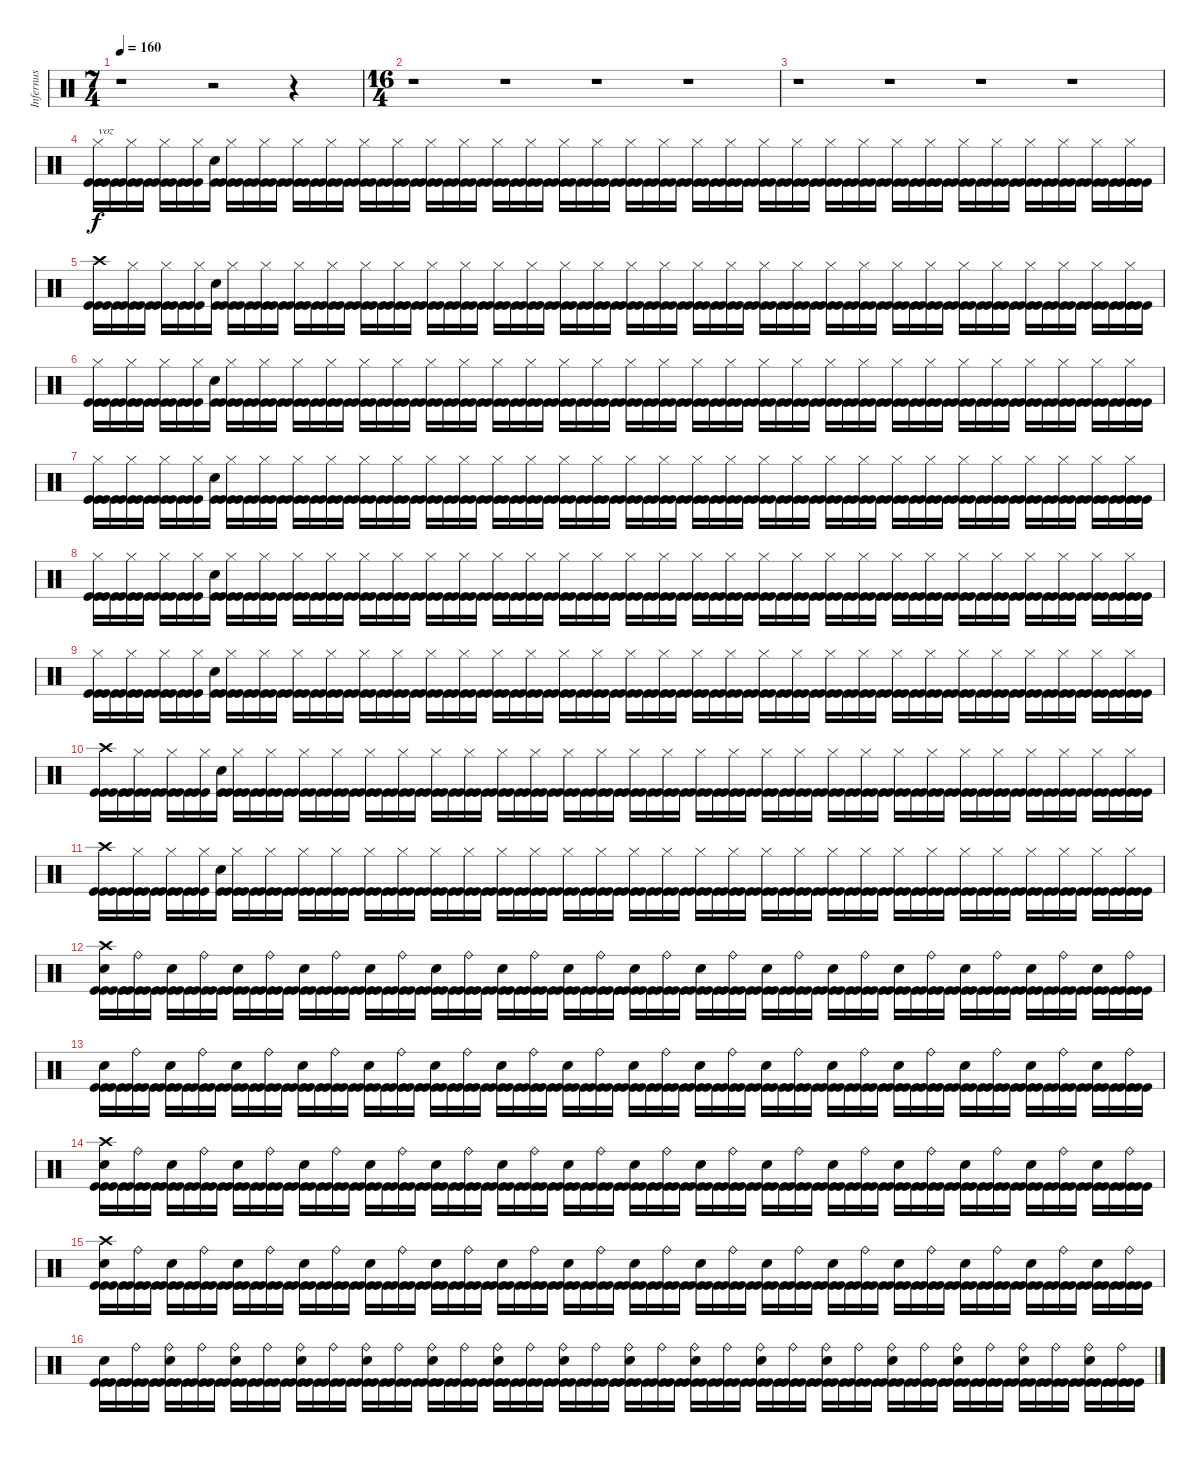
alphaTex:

\track ("Infernus" "Infernus") {instrument percussion}
\staff {score}
\articulation defaults
\ts (7 4)
\tempo 160
\clef neutral
\ks c
r.1{dy f} r.2 r.4 |
\ts (16 4)
r.1 r.1 r.1 r.1 |
r.1 r.1 r.1 r.1 |
("Hi-Hat (closed)" "Kick (hit)" "Kick (hit)").16{txt "voz"} ("Kick (hit)" "Kick (hit)").16 ("Hi-Hat (closed)" "Kick (hit)" "Kick (hit)").16 ("Kick (hit)" "Kick (hit)").16 ("Hi-Hat (closed)" "Kick (hit)" "Kick (hit)").16 ("Kick (hit)" "Kick (hit)").16 ("Hi-Hat (closed)" "Kick (hit)" "Kick (hit)").16 ("Snare (hit)" "Kick (hit)").16 ("Hi-Hat (closed)" "Kick (hit)" "Kick (hit)").16 ("Kick (hit)" "Kick (hit)").16 ("Hi-Hat (closed)" "Kick (hit)" "Kick (hit)").16 ("Kick (hit)" "Kick (hit)").16 ("Hi-Hat (closed)" "Kick (hit)" "Kick (hit)").16 ("Kick (hit)" "Kick (hit)").16 ("Hi-Hat (closed)" "Kick (hit)" "Kick (hit)").16 ("Kick (hit)" "Kick (hit)").16 ("Hi-Hat (closed)" "Kick (hit)" "Kick (hit)").16 ("Kick (hit)" "Kick (hit)").16 ("Hi-Hat (closed)" "Kick (hit)" "Kick (hit)").16 ("Kick (hit)" "Kick (hit)").16 ("Hi-Hat (closed)" "Kick (hit)" "Kick (hit)").16 ("Kick (hit)" "Kick (hit)").16 ("Hi-Hat (closed)" "Kick (hit)" "Kick (hit)").16 ("Kick (hit)" "Kick (hit)").16 ("Hi-Hat (closed)" "Kick (hit)" "Kick (hit)").16 ("Kick (hit)" "Kick (hit)").16 ("Hi-Hat (closed)" "Kick (hit)" "Kick (hit)").16 ("Kick (hit)" "Kick (hit)").16 ("Hi-Hat (closed)" "Kick (hit)" "Kick (hit)").16 ("Kick (hit)" "Kick (hit)").16 ("Hi-Hat (closed)" "Kick (hit)" "Kick (hit)").16 ("Kick (hit)" "Kick (hit)").16 ("Hi-Hat (closed)" "Kick (hit)" "Kick (hit)").16 ("Kick (hit)" "Kick (hit)").16 ("Hi-Hat (closed)" "Kick (hit)" "Kick (hit)").16 ("Kick (hit)" "Kick (hit)").16 ("Hi-Hat (closed)" "Kick (hit)" "Kick (hit)").16 ("Kick (hit)" "Kick (hit)").16 ("Hi-Hat (closed)" "Kick (hit)" "Kick (hit)").16 ("Kick (hit)" "Kick (hit)").16 ("Hi-Hat (closed)" "Kick (hit)" "Kick (hit)").16 ("Kick (hit)" "Kick (hit)").16 ("Hi-Hat (closed)" "Kick (hit)" "Kick (hit)").16 ("Kick (hit)" "Kick (hit)").16 ("Hi-Hat (closed)" "Kick (hit)" "Kick (hit)").16 ("Kick (hit)" "Kick (hit)").16 ("Hi-Hat (closed)" "Kick (hit)" "Kick (hit)").16 ("Kick (hit)" "Kick (hit)").16 ("Hi-Hat (closed)" "Kick (hit)" "Kick (hit)").16 ("Kick (hit)" "Kick (hit)").16 ("Hi-Hat (closed)" "Kick (hit)" "Kick (hit)").16 ("Kick (hit)" "Kick (hit)").16 ("Hi-Hat (closed)" "Kick (hit)" "Kick (hit)").16 ("Kick (hit)" "Kick (hit)").16 ("Hi-Hat (closed)" "Kick (hit)" "Kick (hit)").16 ("Kick (hit)" "Kick (hit)").16 ("Hi-Hat (closed)" "Kick (hit)" "Kick (hit)").16 ("Kick (hit)" "Kick (hit)").16 ("Hi-Hat (closed)" "Kick (hit)" "Kick (hit)").16 ("Kick (hit)" "Kick (hit)").16 ("Hi-Hat (closed)" "Kick (hit)" "Kick (hit)").16 ("Kick (hit)" "Kick (hit)").16 ("Hi-Hat (closed)" "Kick (hit)" "Kick (hit)").16 ("Kick (hit)" "Kick (hit)").16 |
("Crash high (hit)" "Kick (hit)" "Kick (hit)").16 ("Kick (hit)" "Kick (hit)").16 ("Hi-Hat (closed)" "Kick (hit)" "Kick (hit)").16 ("Kick (hit)" "Kick (hit)").16 ("Hi-Hat (closed)" "Kick (hit)" "Kick (hit)").16 ("Kick (hit)" "Kick (hit)").16 ("Hi-Hat (closed)" "Kick (hit)" "Kick (hit)").16 ("Snare (hit)" "Kick (hit)").16 ("Hi-Hat (closed)" "Kick (hit)" "Kick (hit)").16 ("Kick (hit)" "Kick (hit)").16 ("Hi-Hat (closed)" "Kick (hit)" "Kick (hit)").16 ("Kick (hit)" "Kick (hit)").16 ("Hi-Hat (closed)" "Kick (hit)" "Kick (hit)").16 ("Kick (hit)" "Kick (hit)").16 ("Hi-Hat (closed)" "Kick (hit)" "Kick (hit)").16 ("Kick (hit)" "Kick (hit)").16 ("Hi-Hat (closed)" "Kick (hit)" "Kick (hit)").16 ("Kick (hit)" "Kick (hit)").16 ("Hi-Hat (closed)" "Kick (hit)" "Kick (hit)").16 ("Kick (hit)" "Kick (hit)").16 ("Hi-Hat (closed)" "Kick (hit)" "Kick (hit)").16 ("Kick (hit)" "Kick (hit)").16 ("Hi-Hat (closed)" "Kick (hit)" "Kick (hit)").16 ("Kick (hit)" "Kick (hit)").16 ("Hi-Hat (closed)" "Kick (hit)" "Kick (hit)").16 ("Kick (hit)" "Kick (hit)").16 ("Hi-Hat (closed)" "Kick (hit)" "Kick (hit)").16 ("Kick (hit)" "Kick (hit)").16 ("Hi-Hat (closed)" "Kick (hit)" "Kick (hit)").16 ("Kick (hit)" "Kick (hit)").16 ("Hi-Hat (closed)" "Kick (hit)" "Kick (hit)").16 ("Kick (hit)" "Kick (hit)").16 ("Hi-Hat (closed)" "Kick (hit)" "Kick (hit)").16 ("Kick (hit)" "Kick (hit)").16 ("Hi-Hat (closed)" "Kick (hit)" "Kick (hit)").16 ("Kick (hit)" "Kick (hit)").16 ("Hi-Hat (closed)" "Kick (hit)" "Kick (hit)").16 ("Kick (hit)" "Kick (hit)").16 ("Hi-Hat (closed)" "Kick (hit)" "Kick (hit)").16 ("Kick (hit)" "Kick (hit)").16 ("Hi-Hat (closed)" "Kick (hit)" "Kick (hit)").16 ("Kick (hit)" "Kick (hit)").16 ("Hi-Hat (closed)" "Kick (hit)" "Kick (hit)").16 ("Kick (hit)" "Kick (hit)").16 ("Hi-Hat (closed)" "Kick (hit)" "Kick (hit)").16 ("Kick (hit)" "Kick (hit)").16 ("Hi-Hat (closed)" "Kick (hit)" "Kick (hit)").16 ("Kick (hit)" "Kick (hit)").16 ("Hi-Hat (closed)" "Kick (hit)" "Kick (hit)").16 ("Kick (hit)" "Kick (hit)").16 ("Hi-Hat (closed)" "Kick (hit)" "Kick (hit)").16 ("Kick (hit)" "Kick (hit)").16 ("Hi-Hat (closed)" "Kick (hit)" "Kick (hit)").16 ("Kick (hit)" "Kick (hit)").16 ("Hi-Hat (closed)" "Kick (hit)" "Kick (hit)").16 ("Kick (hit)" "Kick (hit)").16 ("Hi-Hat (closed)" "Kick (hit)" "Kick (hit)").16 ("Kick (hit)" "Kick (hit)").16 ("Hi-Hat (closed)" "Kick (hit)" "Kick (hit)").16 ("Kick (hit)" "Kick (hit)").16 ("Hi-Hat (closed)" "Kick (hit)" "Kick (hit)").16 ("Kick (hit)" "Kick (hit)").16 ("Hi-Hat (closed)" "Kick (hit)" "Kick (hit)").16 ("Kick (hit)" "Kick (hit)").16 |
("Hi-Hat (closed)" "Kick (hit)" "Kick (hit)").16 ("Kick (hit)" "Kick (hit)").16 ("Hi-Hat (closed)" "Kick (hit)" "Kick (hit)").16 ("Kick (hit)" "Kick (hit)").16 ("Hi-Hat (closed)" "Kick (hit)" "Kick (hit)").16 ("Kick (hit)" "Kick (hit)").16 ("Hi-Hat (closed)" "Kick (hit)" "Kick (hit)").16 ("Snare (hit)" "Kick (hit)").16 ("Hi-Hat (closed)" "Kick (hit)" "Kick (hit)").16 ("Kick (hit)" "Kick (hit)").16 ("Hi-Hat (closed)" "Kick (hit)" "Kick (hit)").16 ("Kick (hit)" "Kick (hit)").16 ("Hi-Hat (closed)" "Kick (hit)" "Kick (hit)").16 ("Kick (hit)" "Kick (hit)").16 ("Hi-Hat (closed)" "Kick (hit)" "Kick (hit)").16 ("Kick (hit)" "Kick (hit)").16 ("Hi-Hat (closed)" "Kick (hit)" "Kick (hit)").16 ("Kick (hit)" "Kick (hit)").16 ("Hi-Hat (closed)" "Kick (hit)" "Kick (hit)").16 ("Kick (hit)" "Kick (hit)").16 ("Hi-Hat (closed)" "Kick (hit)" "Kick (hit)").16 ("Kick (hit)" "Kick (hit)").16 ("Hi-Hat (closed)" "Kick (hit)" "Kick (hit)").16 ("Kick (hit)" "Kick (hit)").16 ("Hi-Hat (closed)" "Kick (hit)" "Kick (hit)").16 ("Kick (hit)" "Kick (hit)").16 ("Hi-Hat (closed)" "Kick (hit)" "Kick (hit)").16 ("Kick (hit)" "Kick (hit)").16 ("Hi-Hat (closed)" "Kick (hit)" "Kick (hit)").16 ("Kick (hit)" "Kick (hit)").16 ("Hi-Hat (closed)" "Kick (hit)" "Kick (hit)").16 ("Kick (hit)" "Kick (hit)").16 ("Hi-Hat (closed)" "Kick (hit)" "Kick (hit)").16 ("Kick (hit)" "Kick (hit)").16 ("Hi-Hat (closed)" "Kick (hit)" "Kick (hit)").16 ("Kick (hit)" "Kick (hit)").16 ("Hi-Hat (closed)" "Kick (hit)" "Kick (hit)").16 ("Kick (hit)" "Kick (hit)").16 ("Hi-Hat (closed)" "Kick (hit)" "Kick (hit)").16 ("Kick (hit)" "Kick (hit)").16 ("Hi-Hat (closed)" "Kick (hit)" "Kick (hit)").16 ("Kick (hit)" "Kick (hit)").16 ("Hi-Hat (closed)" "Kick (hit)" "Kick (hit)").16 ("Kick (hit)" "Kick (hit)").16 ("Hi-Hat (closed)" "Kick (hit)" "Kick (hit)").16 ("Kick (hit)" "Kick (hit)").16 ("Hi-Hat (closed)" "Kick (hit)" "Kick (hit)").16 ("Kick (hit)" "Kick (hit)").16 ("Hi-Hat (closed)" "Kick (hit)" "Kick (hit)").16 ("Kick (hit)" "Kick (hit)").16 ("Hi-Hat (closed)" "Kick (hit)" "Kick (hit)").16 ("Kick (hit)" "Kick (hit)").16 ("Hi-Hat (closed)" "Kick (hit)" "Kick (hit)").16 ("Kick (hit)" "Kick (hit)").16 ("Hi-Hat (closed)" "Kick (hit)" "Kick (hit)").16 ("Kick (hit)" "Kick (hit)").16 ("Hi-Hat (closed)" "Kick (hit)" "Kick (hit)").16 ("Kick (hit)" "Kick (hit)").16 ("Hi-Hat (closed)" "Kick (hit)" "Kick (hit)").16 ("Kick (hit)" "Kick (hit)").16 ("Hi-Hat (closed)" "Kick (hit)" "Kick (hit)").16 ("Kick (hit)" "Kick (hit)").16 ("Hi-Hat (closed)" "Kick (hit)" "Kick (hit)").16 ("Kick (hit)" "Kick (hit)").16 |
("Hi-Hat (closed)" "Kick (hit)" "Kick (hit)").16 ("Kick (hit)" "Kick (hit)").16 ("Hi-Hat (closed)" "Kick (hit)" "Kick (hit)").16 ("Kick (hit)" "Kick (hit)").16 ("Hi-Hat (closed)" "Kick (hit)" "Kick (hit)").16 ("Kick (hit)" "Kick (hit)").16 ("Hi-Hat (closed)" "Kick (hit)" "Kick (hit)").16 ("Snare (hit)" "Kick (hit)").16 ("Hi-Hat (closed)" "Kick (hit)" "Kick (hit)").16 ("Kick (hit)" "Kick (hit)").16 ("Hi-Hat (closed)" "Kick (hit)" "Kick (hit)").16 ("Kick (hit)" "Kick (hit)").16 ("Hi-Hat (closed)" "Kick (hit)" "Kick (hit)").16 ("Kick (hit)" "Kick (hit)").16 ("Hi-Hat (closed)" "Kick (hit)" "Kick (hit)").16 ("Kick (hit)" "Kick (hit)").16 ("Hi-Hat (closed)" "Kick (hit)" "Kick (hit)").16 ("Kick (hit)" "Kick (hit)").16 ("Hi-Hat (closed)" "Kick (hit)" "Kick (hit)").16 ("Kick (hit)" "Kick (hit)").16 ("Hi-Hat (closed)" "Kick (hit)" "Kick (hit)").16 ("Kick (hit)" "Kick (hit)").16 ("Hi-Hat (closed)" "Kick (hit)" "Kick (hit)").16 ("Kick (hit)" "Kick (hit)").16 ("Hi-Hat (closed)" "Kick (hit)" "Kick (hit)").16 ("Kick (hit)" "Kick (hit)").16 ("Hi-Hat (closed)" "Kick (hit)" "Kick (hit)").16 ("Kick (hit)" "Kick (hit)").16 ("Hi-Hat (closed)" "Kick (hit)" "Kick (hit)").16 ("Kick (hit)" "Kick (hit)").16 ("Hi-Hat (closed)" "Kick (hit)" "Kick (hit)").16 ("Kick (hit)" "Kick (hit)").16 ("Hi-Hat (closed)" "Kick (hit)" "Kick (hit)").16 ("Kick (hit)" "Kick (hit)").16 ("Hi-Hat (closed)" "Kick (hit)" "Kick (hit)").16 ("Kick (hit)" "Kick (hit)").16 ("Hi-Hat (closed)" "Kick (hit)" "Kick (hit)").16 ("Kick (hit)" "Kick (hit)").16 ("Hi-Hat (closed)" "Kick (hit)" "Kick (hit)").16 ("Kick (hit)" "Kick (hit)").16 ("Hi-Hat (closed)" "Kick (hit)" "Kick (hit)").16 ("Kick (hit)" "Kick (hit)").16 ("Hi-Hat (closed)" "Kick (hit)" "Kick (hit)").16 ("Kick (hit)" "Kick (hit)").16 ("Hi-Hat (closed)" "Kick (hit)" "Kick (hit)").16 ("Kick (hit)" "Kick (hit)").16 ("Hi-Hat (closed)" "Kick (hit)" "Kick (hit)").16 ("Kick (hit)" "Kick (hit)").16 ("Hi-Hat (closed)" "Kick (hit)" "Kick (hit)").16 ("Kick (hit)" "Kick (hit)").16 ("Hi-Hat (closed)" "Kick (hit)" "Kick (hit)").16 ("Kick (hit)" "Kick (hit)").16 ("Hi-Hat (closed)" "Kick (hit)" "Kick (hit)").16 ("Kick (hit)" "Kick (hit)").16 ("Hi-Hat (closed)" "Kick (hit)" "Kick (hit)").16 ("Kick (hit)" "Kick (hit)").16 ("Hi-Hat (closed)" "Kick (hit)" "Kick (hit)").16 ("Kick (hit)" "Kick (hit)").16 ("Hi-Hat (closed)" "Kick (hit)" "Kick (hit)").16 ("Kick (hit)" "Kick (hit)").16 ("Hi-Hat (closed)" "Kick (hit)" "Kick (hit)").16 ("Kick (hit)" "Kick (hit)").16 ("Hi-Hat (closed)" "Kick (hit)" "Kick (hit)").16 ("Kick (hit)" "Kick (hit)").16 |
("Hi-Hat (closed)" "Kick (hit)" "Kick (hit)").16 ("Kick (hit)" "Kick (hit)").16 ("Hi-Hat (closed)" "Kick (hit)" "Kick (hit)").16 ("Kick (hit)" "Kick (hit)").16 ("Hi-Hat (closed)" "Kick (hit)" "Kick (hit)").16 ("Kick (hit)" "Kick (hit)").16 ("Hi-Hat (closed)" "Kick (hit)" "Kick (hit)").16 ("Snare (hit)" "Kick (hit)").16 ("Hi-Hat (closed)" "Kick (hit)" "Kick (hit)").16 ("Kick (hit)" "Kick (hit)").16 ("Hi-Hat (closed)" "Kick (hit)" "Kick (hit)").16 ("Kick (hit)" "Kick (hit)").16 ("Hi-Hat (closed)" "Kick (hit)" "Kick (hit)").16 ("Kick (hit)" "Kick (hit)").16 ("Hi-Hat (closed)" "Kick (hit)" "Kick (hit)").16 ("Kick (hit)" "Kick (hit)").16 ("Hi-Hat (closed)" "Kick (hit)" "Kick (hit)").16 ("Kick (hit)" "Kick (hit)").16 ("Hi-Hat (closed)" "Kick (hit)" "Kick (hit)").16 ("Kick (hit)" "Kick (hit)").16 ("Hi-Hat (closed)" "Kick (hit)" "Kick (hit)").16 ("Kick (hit)" "Kick (hit)").16 ("Hi-Hat (closed)" "Kick (hit)" "Kick (hit)").16 ("Kick (hit)" "Kick (hit)").16 ("Hi-Hat (closed)" "Kick (hit)" "Kick (hit)").16 ("Kick (hit)" "Kick (hit)").16 ("Hi-Hat (closed)" "Kick (hit)" "Kick (hit)").16 ("Kick (hit)" "Kick (hit)").16 ("Hi-Hat (closed)" "Kick (hit)" "Kick (hit)").16 ("Kick (hit)" "Kick (hit)").16 ("Hi-Hat (closed)" "Kick (hit)" "Kick (hit)").16 ("Kick (hit)" "Kick (hit)").16 ("Hi-Hat (closed)" "Kick (hit)" "Kick (hit)").16 ("Kick (hit)" "Kick (hit)").16 ("Hi-Hat (closed)" "Kick (hit)" "Kick (hit)").16 ("Kick (hit)" "Kick (hit)").16 ("Hi-Hat (closed)" "Kick (hit)" "Kick (hit)").16 ("Kick (hit)" "Kick (hit)").16 ("Hi-Hat (closed)" "Kick (hit)" "Kick (hit)").16 ("Kick (hit)" "Kick (hit)").16 ("Hi-Hat (closed)" "Kick (hit)" "Kick (hit)").16 ("Kick (hit)" "Kick (hit)").16 ("Hi-Hat (closed)" "Kick (hit)" "Kick (hit)").16 ("Kick (hit)" "Kick (hit)").16 ("Hi-Hat (closed)" "Kick (hit)" "Kick (hit)").16 ("Kick (hit)" "Kick (hit)").16 ("Hi-Hat (closed)" "Kick (hit)" "Kick (hit)").16 ("Kick (hit)" "Kick (hit)").16 ("Hi-Hat (closed)" "Kick (hit)" "Kick (hit)").16 ("Kick (hit)" "Kick (hit)").16 ("Hi-Hat (closed)" "Kick (hit)" "Kick (hit)").16 ("Kick (hit)" "Kick (hit)").16 ("Hi-Hat (closed)" "Kick (hit)" "Kick (hit)").16 ("Kick (hit)" "Kick (hit)").16 ("Hi-Hat (closed)" "Kick (hit)" "Kick (hit)").16 ("Kick (hit)" "Kick (hit)").16 ("Hi-Hat (closed)" "Kick (hit)" "Kick (hit)").16 ("Kick (hit)" "Kick (hit)").16 ("Hi-Hat (closed)" "Kick (hit)" "Kick (hit)").16 ("Kick (hit)" "Kick (hit)").16 ("Hi-Hat (closed)" "Kick (hit)" "Kick (hit)").16 ("Kick (hit)" "Kick (hit)").16 ("Hi-Hat (closed)" "Kick (hit)" "Kick (hit)").16 ("Kick (hit)" "Kick (hit)").16 |
("Hi-Hat (closed)" "Kick (hit)" "Kick (hit)").16 ("Kick (hit)" "Kick (hit)").16 ("Hi-Hat (closed)" "Kick (hit)" "Kick (hit)").16 ("Kick (hit)" "Kick (hit)").16 ("Hi-Hat (closed)" "Kick (hit)" "Kick (hit)").16 ("Kick (hit)" "Kick (hit)").16 ("Hi-Hat (closed)" "Kick (hit)" "Kick (hit)").16 ("Snare (hit)" "Kick (hit)").16 ("Hi-Hat (closed)" "Kick (hit)" "Kick (hit)").16 ("Kick (hit)" "Kick (hit)").16 ("Hi-Hat (closed)" "Kick (hit)" "Kick (hit)").16 ("Kick (hit)" "Kick (hit)").16 ("Hi-Hat (closed)" "Kick (hit)" "Kick (hit)").16 ("Kick (hit)" "Kick (hit)").16 ("Hi-Hat (closed)" "Kick (hit)" "Kick (hit)").16 ("Kick (hit)" "Kick (hit)").16 ("Hi-Hat (closed)" "Kick (hit)" "Kick (hit)").16 ("Kick (hit)" "Kick (hit)").16 ("Hi-Hat (closed)" "Kick (hit)" "Kick (hit)").16 ("Kick (hit)" "Kick (hit)").16 ("Hi-Hat (closed)" "Kick (hit)" "Kick (hit)").16 ("Kick (hit)" "Kick (hit)").16 ("Hi-Hat (closed)" "Kick (hit)" "Kick (hit)").16 ("Kick (hit)" "Kick (hit)").16 ("Hi-Hat (closed)" "Kick (hit)" "Kick (hit)").16 ("Kick (hit)" "Kick (hit)").16 ("Hi-Hat (closed)" "Kick (hit)" "Kick (hit)").16 ("Kick (hit)" "Kick (hit)").16 ("Hi-Hat (closed)" "Kick (hit)" "Kick (hit)").16 ("Kick (hit)" "Kick (hit)").16 ("Hi-Hat (closed)" "Kick (hit)" "Kick (hit)").16 ("Kick (hit)" "Kick (hit)").16 ("Hi-Hat (closed)" "Kick (hit)" "Kick (hit)").16 ("Kick (hit)" "Kick (hit)").16 ("Hi-Hat (closed)" "Kick (hit)" "Kick (hit)").16 ("Kick (hit)" "Kick (hit)").16 ("Hi-Hat (closed)" "Kick (hit)" "Kick (hit)").16 ("Kick (hit)" "Kick (hit)").16 ("Hi-Hat (closed)" "Kick (hit)" "Kick (hit)").16 ("Kick (hit)" "Kick (hit)").16 ("Hi-Hat (closed)" "Kick (hit)" "Kick (hit)").16 ("Kick (hit)" "Kick (hit)").16 ("Hi-Hat (closed)" "Kick (hit)" "Kick (hit)").16 ("Kick (hit)" "Kick (hit)").16 ("Hi-Hat (closed)" "Kick (hit)" "Kick (hit)").16 ("Kick (hit)" "Kick (hit)").16 ("Hi-Hat (closed)" "Kick (hit)" "Kick (hit)").16 ("Kick (hit)" "Kick (hit)").16 ("Hi-Hat (closed)" "Kick (hit)" "Kick (hit)").16 ("Kick (hit)" "Kick (hit)").16 ("Hi-Hat (closed)" "Kick (hit)" "Kick (hit)").16 ("Kick (hit)" "Kick (hit)").16 ("Hi-Hat (closed)" "Kick (hit)" "Kick (hit)").16 ("Kick (hit)" "Kick (hit)").16 ("Hi-Hat (closed)" "Kick (hit)" "Kick (hit)").16 ("Kick (hit)" "Kick (hit)").16 ("Hi-Hat (closed)" "Kick (hit)" "Kick (hit)").16 ("Kick (hit)" "Kick (hit)").16 ("Hi-Hat (closed)" "Kick (hit)" "Kick (hit)").16 ("Kick (hit)" "Kick (hit)").16 ("Hi-Hat (closed)" "Kick (hit)" "Kick (hit)").16 ("Kick (hit)" "Kick (hit)").16 ("Hi-Hat (closed)" "Kick (hit)" "Kick (hit)").16 ("Kick (hit)" "Kick (hit)").16 |
("Crash high (hit)" "Kick (hit)" "Kick (hit)").16 ("Kick (hit)" "Kick (hit)").16 ("Hi-Hat (closed)" "Kick (hit)" "Kick (hit)").16 ("Kick (hit)" "Kick (hit)").16 ("Hi-Hat (closed)" "Kick (hit)" "Kick (hit)").16 ("Kick (hit)" "Kick (hit)").16 ("Hi-Hat (closed)" "Kick (hit)" "Kick (hit)").16 ("Snare (hit)" "Kick (hit)").16 ("Hi-Hat (closed)" "Kick (hit)" "Kick (hit)").16 ("Kick (hit)" "Kick (hit)").16 ("Hi-Hat (closed)" "Kick (hit)" "Kick (hit)").16 ("Kick (hit)" "Kick (hit)").16 ("Hi-Hat (closed)" "Kick (hit)" "Kick (hit)").16 ("Kick (hit)" "Kick (hit)").16 ("Hi-Hat (closed)" "Kick (hit)" "Kick (hit)").16 ("Kick (hit)" "Kick (hit)").16 ("Hi-Hat (closed)" "Kick (hit)" "Kick (hit)").16 ("Kick (hit)" "Kick (hit)").16 ("Hi-Hat (closed)" "Kick (hit)" "Kick (hit)").16 ("Kick (hit)" "Kick (hit)").16 ("Hi-Hat (closed)" "Kick (hit)" "Kick (hit)").16 ("Kick (hit)" "Kick (hit)").16 ("Hi-Hat (closed)" "Kick (hit)" "Kick (hit)").16 ("Kick (hit)" "Kick (hit)").16 ("Hi-Hat (closed)" "Kick (hit)" "Kick (hit)").16 ("Kick (hit)" "Kick (hit)").16 ("Hi-Hat (closed)" "Kick (hit)" "Kick (hit)").16 ("Kick (hit)" "Kick (hit)").16 ("Hi-Hat (closed)" "Kick (hit)" "Kick (hit)").16 ("Kick (hit)" "Kick (hit)").16 ("Hi-Hat (closed)" "Kick (hit)" "Kick (hit)").16 ("Kick (hit)" "Kick (hit)").16 ("Hi-Hat (closed)" "Kick (hit)" "Kick (hit)").16 ("Kick (hit)" "Kick (hit)").16 ("Hi-Hat (closed)" "Kick (hit)" "Kick (hit)").16 ("Kick (hit)" "Kick (hit)").16 ("Hi-Hat (closed)" "Kick (hit)" "Kick (hit)").16 ("Kick (hit)" "Kick (hit)").16 ("Hi-Hat (closed)" "Kick (hit)" "Kick (hit)").16 ("Kick (hit)" "Kick (hit)").16 ("Hi-Hat (closed)" "Kick (hit)" "Kick (hit)").16 ("Kick (hit)" "Kick (hit)").16 ("Hi-Hat (closed)" "Kick (hit)" "Kick (hit)").16 ("Kick (hit)" "Kick (hit)").16 ("Hi-Hat (closed)" "Kick (hit)" "Kick (hit)").16 ("Kick (hit)" "Kick (hit)").16 ("Hi-Hat (closed)" "Kick (hit)" "Kick (hit)").16 ("Kick (hit)" "Kick (hit)").16 ("Hi-Hat (closed)" "Kick (hit)" "Kick (hit)").16 ("Kick (hit)" "Kick (hit)").16 ("Hi-Hat (closed)" "Kick (hit)" "Kick (hit)").16 ("Kick (hit)" "Kick (hit)").16 ("Hi-Hat (closed)" "Kick (hit)" "Kick (hit)").16 ("Kick (hit)" "Kick (hit)").16 ("Hi-Hat (closed)" "Kick (hit)" "Kick (hit)").16 ("Kick (hit)" "Kick (hit)").16 ("Hi-Hat (closed)" "Kick (hit)" "Kick (hit)").16 ("Kick (hit)" "Kick (hit)").16 ("Hi-Hat (closed)" "Kick (hit)" "Kick (hit)").16 ("Kick (hit)" "Kick (hit)").16 ("Hi-Hat (closed)" "Kick (hit)" "Kick (hit)").16 ("Kick (hit)" "Kick (hit)").16 ("Hi-Hat (closed)" "Kick (hit)" "Kick (hit)").16 ("Kick (hit)" "Kick (hit)").16 |
("Crash high (hit)" "Kick (hit)" "Kick (hit)").16 ("Kick (hit)" "Kick (hit)").16 ("Hi-Hat (closed)" "Kick (hit)" "Kick (hit)").16 ("Kick (hit)" "Kick (hit)").16 ("Hi-Hat (closed)" "Kick (hit)" "Kick (hit)").16 ("Kick (hit)" "Kick (hit)").16 ("Hi-Hat (closed)" "Kick (hit)" "Kick (hit)").16 ("Snare (hit)" "Kick (hit)").16 ("Hi-Hat (closed)" "Kick (hit)" "Kick (hit)").16 ("Kick (hit)" "Kick (hit)").16 ("Hi-Hat (closed)" "Kick (hit)" "Kick (hit)").16 ("Kick (hit)" "Kick (hit)").16 ("Hi-Hat (closed)" "Kick (hit)" "Kick (hit)").16 ("Kick (hit)" "Kick (hit)").16 ("Hi-Hat (closed)" "Kick (hit)" "Kick (hit)").16 ("Kick (hit)" "Kick (hit)").16 ("Hi-Hat (closed)" "Kick (hit)" "Kick (hit)").16 ("Kick (hit)" "Kick (hit)").16 ("Hi-Hat (closed)" "Kick (hit)" "Kick (hit)").16 ("Kick (hit)" "Kick (hit)").16 ("Hi-Hat (closed)" "Kick (hit)" "Kick (hit)").16 ("Kick (hit)" "Kick (hit)").16 ("Hi-Hat (closed)" "Kick (hit)" "Kick (hit)").16 ("Kick (hit)" "Kick (hit)").16 ("Hi-Hat (closed)" "Kick (hit)" "Kick (hit)").16 ("Kick (hit)" "Kick (hit)").16 ("Hi-Hat (closed)" "Kick (hit)" "Kick (hit)").16 ("Kick (hit)" "Kick (hit)").16 ("Hi-Hat (closed)" "Kick (hit)" "Kick (hit)").16 ("Kick (hit)" "Kick (hit)").16 ("Hi-Hat (closed)" "Kick (hit)" "Kick (hit)").16 ("Kick (hit)" "Kick (hit)").16 ("Hi-Hat (closed)" "Kick (hit)" "Kick (hit)").16 ("Kick (hit)" "Kick (hit)").16 ("Hi-Hat (closed)" "Kick (hit)" "Kick (hit)").16 ("Kick (hit)" "Kick (hit)").16 ("Hi-Hat (closed)" "Kick (hit)" "Kick (hit)").16 ("Kick (hit)" "Kick (hit)").16 ("Hi-Hat (closed)" "Kick (hit)" "Kick (hit)").16 ("Kick (hit)" "Kick (hit)").16 ("Hi-Hat (closed)" "Kick (hit)" "Kick (hit)").16 ("Kick (hit)" "Kick (hit)").16 ("Hi-Hat (closed)" "Kick (hit)" "Kick (hit)").16 ("Kick (hit)" "Kick (hit)").16 ("Hi-Hat (closed)" "Kick (hit)" "Kick (hit)").16 ("Kick (hit)" "Kick (hit)").16 ("Hi-Hat (closed)" "Kick (hit)" "Kick (hit)").16 ("Kick (hit)" "Kick (hit)").16 ("Hi-Hat (closed)" "Kick (hit)" "Kick (hit)").16 ("Kick (hit)" "Kick (hit)").16 ("Hi-Hat (closed)" "Kick (hit)" "Kick (hit)").16 ("Kick (hit)" "Kick (hit)").16 ("Hi-Hat (closed)" "Kick (hit)" "Kick (hit)").16 ("Kick (hit)" "Kick (hit)").16 ("Hi-Hat (closed)" "Kick (hit)" "Kick (hit)").16 ("Kick (hit)" "Kick (hit)").16 ("Hi-Hat (closed)" "Kick (hit)" "Kick (hit)").16 ("Kick (hit)" "Kick (hit)").16 ("Hi-Hat (closed)" "Kick (hit)" "Kick (hit)").16 ("Kick (hit)" "Kick (hit)").16 ("Hi-Hat (closed)" "Kick (hit)" "Kick (hit)").16 ("Kick (hit)" "Kick (hit)").16 ("Hi-Hat (closed)" "Kick (hit)" "Kick (hit)").16 ("Kick (hit)" "Kick (hit)").16 |
("Crash high (hit)" "Snare (hit) 2" "Kick (hit)" "Kick (hit)").16 ("Kick (hit)" "Kick (hit)").16 ("Ride (bell)" "Kick (hit)" "Kick (hit)").16 ("Kick (hit)" "Kick (hit)").16 ("Snare (hit) 2" "Kick (hit)" "Kick (hit)").16 ("Kick (hit)" "Kick (hit)").16 ("Ride (bell)" "Kick (hit)" "Kick (hit)").16 ("Kick (hit)" "Kick (hit)").16 ("Snare (hit) 2" "Kick (hit)" "Kick (hit)").16 ("Kick (hit)" "Kick (hit)").16 ("Ride (bell)" "Kick (hit)" "Kick (hit)").16 ("Kick (hit)" "Kick (hit)").16 ("Snare (hit) 2" "Kick (hit)" "Kick (hit)").16 ("Kick (hit)" "Kick (hit)").16 ("Ride (bell)" "Kick (hit)" "Kick (hit)").16 ("Kick (hit)" "Kick (hit)").16 ("Snare (hit) 2" "Kick (hit)" "Kick (hit)").16 ("Kick (hit)" "Kick (hit)").16 ("Ride (bell)" "Kick (hit)" "Kick (hit)").16 ("Kick (hit)" "Kick (hit)").16 ("Snare (hit) 2" "Kick (hit)" "Kick (hit)").16 ("Kick (hit)" "Kick (hit)").16 ("Ride (bell)" "Kick (hit)" "Kick (hit)").16 ("Kick (hit)" "Kick (hit)").16 ("Snare (hit) 2" "Kick (hit)" "Kick (hit)").16 ("Kick (hit)" "Kick (hit)").16 ("Ride (bell)" "Kick (hit)" "Kick (hit)").16 ("Kick (hit)" "Kick (hit)").16 ("Snare (hit) 2" "Kick (hit)" "Kick (hit)").16 ("Kick (hit)" "Kick (hit)").16 ("Ride (bell)" "Kick (hit)" "Kick (hit)").16 ("Kick (hit)" "Kick (hit)").16 ("Snare (hit) 2" "Kick (hit)" "Kick (hit)").16 ("Kick (hit)" "Kick (hit)").16 ("Ride (bell)" "Kick (hit)" "Kick (hit)").16 ("Kick (hit)" "Kick (hit)").16 ("Snare (hit) 2" "Kick (hit)" "Kick (hit)").16 ("Kick (hit)" "Kick (hit)").16 ("Ride (bell)" "Kick (hit)" "Kick (hit)").16 ("Kick (hit)" "Kick (hit)").16 ("Snare (hit) 2" "Kick (hit)" "Kick (hit)").16 ("Kick (hit)" "Kick (hit)").16 ("Ride (bell)" "Kick (hit)" "Kick (hit)").16 ("Kick (hit)" "Kick (hit)").16 ("Snare (hit) 2" "Kick (hit)" "Kick (hit)").16 ("Kick (hit)" "Kick (hit)").16 ("Ride (bell)" "Kick (hit)" "Kick (hit)").16 ("Kick (hit)" "Kick (hit)").16 ("Snare (hit) 2" "Kick (hit)" "Kick (hit)").16 ("Kick (hit)" "Kick (hit)").16 ("Ride (bell)" "Kick (hit)" "Kick (hit)").16 ("Kick (hit)" "Kick (hit)").16 ("Snare (hit) 2" "Kick (hit)" "Kick (hit)").16 ("Kick (hit)" "Kick (hit)").16 ("Ride (bell)" "Kick (hit)" "Kick (hit)").16 ("Kick (hit)" "Kick (hit)").16 ("Snare (hit) 2" "Kick (hit)" "Kick (hit)").16 ("Kick (hit)" "Kick (hit)").16 ("Ride (bell)" "Kick (hit)" "Kick (hit)").16 ("Kick (hit)" "Kick (hit)").16 ("Snare (hit) 2" "Kick (hit)" "Kick (hit)").16 ("Kick (hit)" "Kick (hit)").16 ("Ride (bell)" "Kick (hit)" "Kick (hit)").16 ("Kick (hit)" "Kick (hit)").16 |
("Snare (hit) 2" "Kick (hit)" "Kick (hit)").16 ("Kick (hit)" "Kick (hit)").16 ("Ride (bell)" "Kick (hit)" "Kick (hit)").16 ("Kick (hit)" "Kick (hit)").16 ("Snare (hit) 2" "Kick (hit)" "Kick (hit)").16 ("Kick (hit)" "Kick (hit)").16 ("Ride (bell)" "Kick (hit)" "Kick (hit)").16 ("Kick (hit)" "Kick (hit)").16 ("Snare (hit) 2" "Kick (hit)" "Kick (hit)").16 ("Kick (hit)" "Kick (hit)").16 ("Ride (bell)" "Kick (hit)" "Kick (hit)").16 ("Kick (hit)" "Kick (hit)").16 ("Snare (hit) 2" "Kick (hit)" "Kick (hit)").16 ("Kick (hit)" "Kick (hit)").16 ("Ride (bell)" "Kick (hit)" "Kick (hit)").16 ("Kick (hit)" "Kick (hit)").16 ("Snare (hit) 2" "Kick (hit)" "Kick (hit)").16 ("Kick (hit)" "Kick (hit)").16 ("Ride (bell)" "Kick (hit)" "Kick (hit)").16 ("Kick (hit)" "Kick (hit)").16 ("Snare (hit) 2" "Kick (hit)" "Kick (hit)").16 ("Kick (hit)" "Kick (hit)").16 ("Ride (bell)" "Kick (hit)" "Kick (hit)").16 ("Kick (hit)" "Kick (hit)").16 ("Snare (hit) 2" "Kick (hit)" "Kick (hit)").16 ("Kick (hit)" "Kick (hit)").16 ("Ride (bell)" "Kick (hit)" "Kick (hit)").16 ("Kick (hit)" "Kick (hit)").16 ("Snare (hit) 2" "Kick (hit)" "Kick (hit)").16 ("Kick (hit)" "Kick (hit)").16 ("Ride (bell)" "Kick (hit)" "Kick (hit)").16 ("Kick (hit)" "Kick (hit)").16 ("Snare (hit) 2" "Kick (hit)" "Kick (hit)").16 ("Kick (hit)" "Kick (hit)").16 ("Ride (bell)" "Kick (hit)" "Kick (hit)").16 ("Kick (hit)" "Kick (hit)").16 ("Snare (hit) 2" "Kick (hit)" "Kick (hit)").16 ("Kick (hit)" "Kick (hit)").16 ("Ride (bell)" "Kick (hit)" "Kick (hit)").16 ("Kick (hit)" "Kick (hit)").16 ("Snare (hit) 2" "Kick (hit)" "Kick (hit)").16 ("Kick (hit)" "Kick (hit)").16 ("Ride (bell)" "Kick (hit)" "Kick (hit)").16 ("Kick (hit)" "Kick (hit)").16 ("Snare (hit) 2" "Kick (hit)" "Kick (hit)").16 ("Kick (hit)" "Kick (hit)").16 ("Ride (bell)" "Kick (hit)" "Kick (hit)").16 ("Kick (hit)" "Kick (hit)").16 ("Snare (hit) 2" "Kick (hit)" "Kick (hit)").16 ("Kick (hit)" "Kick (hit)").16 ("Ride (bell)" "Kick (hit)" "Kick (hit)").16 ("Kick (hit)" "Kick (hit)").16 ("Snare (hit) 2" "Kick (hit)" "Kick (hit)").16 ("Kick (hit)" "Kick (hit)").16 ("Ride (bell)" "Kick (hit)" "Kick (hit)").16 ("Kick (hit)" "Kick (hit)").16 ("Snare (hit) 2" "Kick (hit)" "Kick (hit)").16 ("Kick (hit)" "Kick (hit)").16 ("Ride (bell)" "Kick (hit)" "Kick (hit)").16 ("Kick (hit)" "Kick (hit)").16 ("Snare (hit) 2" "Kick (hit)" "Kick (hit)").16 ("Kick (hit)" "Kick (hit)").16 ("Ride (bell)" "Kick (hit)" "Kick (hit)").16 ("Kick (hit)" "Kick (hit)").16 |
("Crash high (hit)" "Snare (hit) 2" "Kick (hit)" "Kick (hit)").16 ("Kick (hit)" "Kick (hit)").16 ("Ride (bell)" "Kick (hit)" "Kick (hit)").16 ("Kick (hit)" "Kick (hit)").16 ("Snare (hit) 2" "Kick (hit)" "Kick (hit)").16 ("Kick (hit)" "Kick (hit)").16 ("Ride (bell)" "Kick (hit)" "Kick (hit)").16 ("Kick (hit)" "Kick (hit)").16 ("Snare (hit) 2" "Kick (hit)" "Kick (hit)").16 ("Kick (hit)" "Kick (hit)").16 ("Ride (bell)" "Kick (hit)" "Kick (hit)").16 ("Kick (hit)" "Kick (hit)").16 ("Snare (hit) 2" "Kick (hit)" "Kick (hit)").16 ("Kick (hit)" "Kick (hit)").16 ("Ride (bell)" "Kick (hit)" "Kick (hit)").16 ("Kick (hit)" "Kick (hit)").16 ("Snare (hit) 2" "Kick (hit)" "Kick (hit)").16 ("Kick (hit)" "Kick (hit)").16 ("Ride (bell)" "Kick (hit)" "Kick (hit)").16 ("Kick (hit)" "Kick (hit)").16 ("Snare (hit) 2" "Kick (hit)" "Kick (hit)").16 ("Kick (hit)" "Kick (hit)").16 ("Ride (bell)" "Kick (hit)" "Kick (hit)").16 ("Kick (hit)" "Kick (hit)").16 ("Snare (hit) 2" "Kick (hit)" "Kick (hit)").16 ("Kick (hit)" "Kick (hit)").16 ("Ride (bell)" "Kick (hit)" "Kick (hit)").16 ("Kick (hit)" "Kick (hit)").16 ("Snare (hit) 2" "Kick (hit)" "Kick (hit)").16 ("Kick (hit)" "Kick (hit)").16 ("Ride (bell)" "Kick (hit)" "Kick (hit)").16 ("Kick (hit)" "Kick (hit)").16 ("Snare (hit) 2" "Kick (hit)" "Kick (hit)").16 ("Kick (hit)" "Kick (hit)").16 ("Ride (bell)" "Kick (hit)" "Kick (hit)").16 ("Kick (hit)" "Kick (hit)").16 ("Snare (hit) 2" "Kick (hit)" "Kick (hit)").16 ("Kick (hit)" "Kick (hit)").16 ("Ride (bell)" "Kick (hit)" "Kick (hit)").16 ("Kick (hit)" "Kick (hit)").16 ("Snare (hit) 2" "Kick (hit)" "Kick (hit)").16 ("Kick (hit)" "Kick (hit)").16 ("Ride (bell)" "Kick (hit)" "Kick (hit)").16 ("Kick (hit)" "Kick (hit)").16 ("Snare (hit) 2" "Kick (hit)" "Kick (hit)").16 ("Kick (hit)" "Kick (hit)").16 ("Ride (bell)" "Kick (hit)" "Kick (hit)").16 ("Kick (hit)" "Kick (hit)").16 ("Snare (hit) 2" "Kick (hit)" "Kick (hit)").16 ("Kick (hit)" "Kick (hit)").16 ("Ride (bell)" "Kick (hit)" "Kick (hit)").16 ("Kick (hit)" "Kick (hit)").16 ("Snare (hit) 2" "Kick (hit)" "Kick (hit)").16 ("Kick (hit)" "Kick (hit)").16 ("Ride (bell)" "Kick (hit)" "Kick (hit)").16 ("Kick (hit)" "Kick (hit)").16 ("Snare (hit) 2" "Kick (hit)" "Kick (hit)").16 ("Kick (hit)" "Kick (hit)").16 ("Ride (bell)" "Kick (hit)" "Kick (hit)").16 ("Kick (hit)" "Kick (hit)").16 ("Snare (hit) 2" "Kick (hit)" "Kick (hit)").16 ("Kick (hit)" "Kick (hit)").16 ("Ride (bell)" "Kick (hit)" "Kick (hit)").16 ("Kick (hit)" "Kick (hit)").16 |
("Crash high (hit)" "Snare (hit) 2" "Kick (hit)" "Kick (hit)").16 ("Kick (hit)" "Kick (hit)").16 ("Ride (bell)" "Kick (hit)" "Kick (hit)").16 ("Kick (hit)" "Kick (hit)").16 ("Snare (hit) 2" "Kick (hit)" "Kick (hit)").16 ("Kick (hit)" "Kick (hit)").16 ("Ride (bell)" "Kick (hit)" "Kick (hit)").16 ("Kick (hit)" "Kick (hit)").16 ("Snare (hit) 2" "Kick (hit)" "Kick (hit)").16 ("Kick (hit)" "Kick (hit)").16 ("Ride (bell)" "Kick (hit)" "Kick (hit)").16 ("Kick (hit)" "Kick (hit)").16 ("Snare (hit) 2" "Kick (hit)" "Kick (hit)").16 ("Kick (hit)" "Kick (hit)").16 ("Ride (bell)" "Kick (hit)" "Kick (hit)").16 ("Kick (hit)" "Kick (hit)").16 ("Snare (hit) 2" "Kick (hit)" "Kick (hit)").16 ("Kick (hit)" "Kick (hit)").16 ("Ride (bell)" "Kick (hit)" "Kick (hit)").16 ("Kick (hit)" "Kick (hit)").16 ("Snare (hit) 2" "Kick (hit)" "Kick (hit)").16 ("Kick (hit)" "Kick (hit)").16 ("Ride (bell)" "Kick (hit)" "Kick (hit)").16 ("Kick (hit)" "Kick (hit)").16 ("Snare (hit) 2" "Kick (hit)" "Kick (hit)").16 ("Kick (hit)" "Kick (hit)").16 ("Ride (bell)" "Kick (hit)" "Kick (hit)").16 ("Kick (hit)" "Kick (hit)").16 ("Snare (hit) 2" "Kick (hit)" "Kick (hit)").16 ("Kick (hit)" "Kick (hit)").16 ("Ride (bell)" "Kick (hit)" "Kick (hit)").16 ("Kick (hit)" "Kick (hit)").16 ("Snare (hit) 2" "Kick (hit)" "Kick (hit)").16 ("Kick (hit)" "Kick (hit)").16 ("Ride (bell)" "Kick (hit)" "Kick (hit)").16 ("Kick (hit)" "Kick (hit)").16 ("Snare (hit) 2" "Kick (hit)" "Kick (hit)").16 ("Kick (hit)" "Kick (hit)").16 ("Ride (bell)" "Kick (hit)" "Kick (hit)").16 ("Kick (hit)" "Kick (hit)").16 ("Snare (hit) 2" "Kick (hit)" "Kick (hit)").16 ("Kick (hit)" "Kick (hit)").16 ("Ride (bell)" "Kick (hit)" "Kick (hit)").16 ("Kick (hit)" "Kick (hit)").16 ("Snare (hit) 2" "Kick (hit)" "Kick (hit)").16 ("Kick (hit)" "Kick (hit)").16 ("Ride (bell)" "Kick (hit)" "Kick (hit)").16 ("Kick (hit)" "Kick (hit)").16 ("Snare (hit) 2" "Kick (hit)" "Kick (hit)").16 ("Kick (hit)" "Kick (hit)").16 ("Ride (bell)" "Kick (hit)" "Kick (hit)").16 ("Kick (hit)" "Kick (hit)").16 ("Snare (hit) 2" "Kick (hit)" "Kick (hit)").16 ("Kick (hit)" "Kick (hit)").16 ("Ride (bell)" "Kick (hit)" "Kick (hit)").16 ("Kick (hit)" "Kick (hit)").16 ("Snare (hit) 2" "Kick (hit)" "Kick (hit)").16 ("Kick (hit)" "Kick (hit)").16 ("Ride (bell)" "Kick (hit)" "Kick (hit)").16 ("Kick (hit)" "Kick (hit)").16 ("Snare (hit) 2" "Kick (hit)" "Kick (hit)").16 ("Kick (hit)" "Kick (hit)").16 ("Ride (bell)" "Kick (hit)" "Kick (hit)").16 ("Kick (hit)" "Kick (hit)").16 |
("Snare (hit) 2" "Kick (hit)" "Kick (hit)").16 ("Kick (hit)" "Kick (hit)").16 ("Ride (bell)" "Kick (hit)" "Kick (hit)").16 ("Kick (hit)" "Kick (hit)").16 ("Ride (bell)" "Snare (hit) 2" "Kick (hit)" "Kick (hit)").16 ("Kick (hit)" "Kick (hit)").16 ("Ride (bell)" "Kick (hit)" "Kick (hit)").16 ("Kick (hit)" "Kick (hit)").16 ("Ride (bell)" "Snare (hit) 2" "Kick (hit)" "Kick (hit)").16 ("Kick (hit)" "Kick (hit)").16 ("Ride (bell)" "Kick (hit)" "Kick (hit)").16 ("Kick (hit)" "Kick (hit)").16 ("Ride (bell)" "Snare (hit) 2" "Kick (hit)" "Kick (hit)").16 ("Kick (hit)" "Kick (hit)").16 ("Ride (bell)" "Kick (hit)" "Kick (hit)").16 ("Kick (hit)" "Kick (hit)").16 ("Ride (bell)" "Snare (hit) 2" "Kick (hit)" "Kick (hit)").16 ("Kick (hit)" "Kick (hit)").16 ("Ride (bell)" "Kick (hit)" "Kick (hit)").16 ("Kick (hit)" "Kick (hit)").16 ("Ride (bell)" "Snare (hit) 2" "Kick (hit)" "Kick (hit)").16 ("Kick (hit)" "Kick (hit)").16 ("Ride (bell)" "Kick (hit)" "Kick (hit)").16 ("Kick (hit)" "Kick (hit)").16 ("Ride (bell)" "Snare (hit) 2" "Kick (hit)" "Kick (hit)").16 ("Kick (hit)" "Kick (hit)").16 ("Ride (bell)" "Kick (hit)" "Kick (hit)").16 ("Kick (hit)" "Kick (hit)").16 ("Ride (bell)" "Snare (hit) 2" "Kick (hit)" "Kick (hit)").16 ("Kick (hit)" "Kick (hit)").16 ("Ride (bell)" "Kick (hit)" "Kick (hit)").16 ("Kick (hit)" "Kick (hit)").16 ("Ride (bell)" "Snare (hit) 2" "Kick (hit)" "Kick (hit)").16 ("Kick (hit)" "Kick (hit)").16 ("Ride (bell)" "Kick (hit)" "Kick (hit)").16 ("Kick (hit)" "Kick (hit)").16 ("Ride (bell)" "Snare (hit) 2" "Kick (hit)" "Kick (hit)").16 ("Kick (hit)" "Kick (hit)").16 ("Ride (bell)" "Kick (hit)" "Kick (hit)").16 ("Kick (hit)" "Kick (hit)").16 ("Ride (bell)" "Snare (hit) 2" "Kick (hit)" "Kick (hit)").16 ("Kick (hit)" "Kick (hit)").16 ("Ride (bell)" "Kick (hit)" "Kick (hit)").16 ("Kick (hit)" "Kick (hit)").16 ("Ride (bell)" "Snare (hit) 2" "Kick (hit)" "Kick (hit)").16 ("Kick (hit)" "Kick (hit)").16 ("Ride (bell)" "Kick (hit)" "Kick (hit)").16 ("Kick (hit)" "Kick (hit)").16 ("Ride (bell)" "Snare (hit) 2" "Kick (hit)" "Kick (hit)").16 ("Kick (hit)" "Kick (hit)").16 ("Ride (bell)" "Kick (hit)" "Kick (hit)").16 ("Kick (hit)" "Kick (hit)").16 ("Ride (bell)" "Snare (hit) 2" "Kick (hit)" "Kick (hit)").16 ("Kick (hit)" "Kick (hit)").16 ("Ride (bell)" "Kick (hit)" "Kick (hit)").16 ("Kick (hit)" "Kick (hit)").16 ("Ride (bell)" "Snare (hit) 2" "Kick (hit)" "Kick (hit)").16 ("Kick (hit)" "Kick (hit)").16 ("Ride (bell)" "Kick (hit)" "Kick (hit)").16 ("Kick (hit)" "Kick (hit)").16 ("Ride (bell)" "Snare (hit) 2" "Kick (hit)" "Kick (hit)").16 ("Kick (hit)" "Kick (hit)").16 ("Ride (bell)" "Kick (hit)" "Kick (hit)").16 ("Kick (hit)" "Kick (hit)").16
